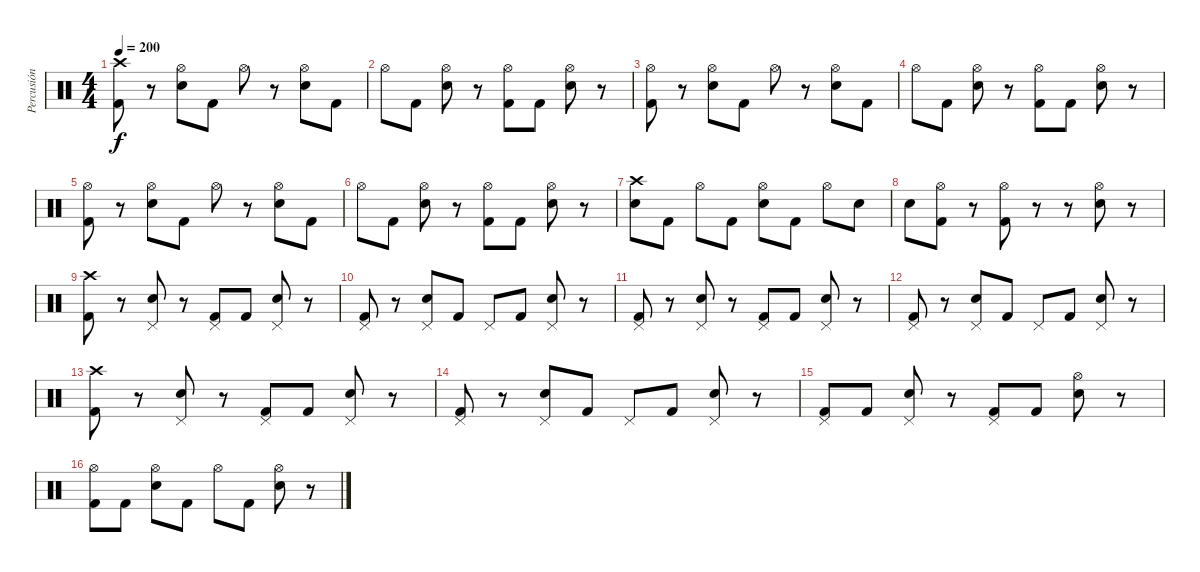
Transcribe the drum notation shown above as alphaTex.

\track ("Percusión" "Percusión") {instrument percussion}
\staff {score}
\articulation defaults
\ts (4 4)
\tempo 200
\clef neutral
\ks c
("Kick (hit) 2" "Crash high (hit)").8{dy f} r.8 ("Snare (hit) 2" "Hi-Hat (open)").8 "Kick (hit) 2".8 "Hi-Hat (open)".8 r.8 ("Snare (hit) 2" "Hi-Hat (open)").8 "Kick (hit) 2".8 |
"Hi-Hat (open)".8 "Kick (hit) 2".8 ("Snare (hit) 2" "Hi-Hat (open)").8 r.8 ("Kick (hit) 2" "Hi-Hat (open)").8 "Kick (hit) 2".8 ("Snare (hit) 2" "Hi-Hat (open)").8 r.8 |
("Kick (hit) 2" "Hi-Hat (open)").8 r.8 ("Snare (hit) 2" "Hi-Hat (open)").8 "Kick (hit) 2".8 "Hi-Hat (open)".8 r.8 ("Snare (hit) 2" "Hi-Hat (open)").8 "Kick (hit) 2".8 |
"Hi-Hat (open)".8 "Kick (hit) 2".8 ("Snare (hit) 2" "Hi-Hat (open)").8 r.8 ("Kick (hit) 2" "Hi-Hat (open)").8 "Kick (hit) 2".8 ("Snare (hit) 2" "Hi-Hat (open)").8 r.8 |
("Kick (hit) 2" "Hi-Hat (open)").8 r.8 ("Snare (hit) 2" "Hi-Hat (open)").8 "Kick (hit) 2".8 "Hi-Hat (open)".8 r.8 ("Snare (hit) 2" "Hi-Hat (open)").8 "Kick (hit) 2".8 |
"Hi-Hat (open)".8 "Kick (hit) 2".8 ("Snare (hit) 2" "Hi-Hat (open)").8 r.8 ("Kick (hit) 2" "Hi-Hat (open)").8 "Kick (hit) 2".8 ("Snare (hit) 2" "Hi-Hat (open)").8 r.8 |
("Snare (hit) 2" "Crash high (hit)").8 "Kick (hit) 2".8 "Hi-Hat (open)".8 "Kick (hit) 2".8 ("Snare (hit) 2" "Hi-Hat (open)").8 "Kick (hit) 2".8 "Hi-Hat (open)".8 "Snare (hit) 2".8 |
"Snare (hit) 2".8 ("Kick (hit) 2" "Hi-Hat (open)").8 r.8 ("Kick (hit) 2" "Hi-Hat (open)").8 r.8 r.8 ("Snare (hit) 2" "Hi-Hat (open)").8 r.8 |
("Kick (hit) 2" "Crash high (hit)").8 r.8 ("Snare (hit) 2" "Pedal Hi-Hat (hit)").8 r.8 ("Kick (hit) 2" "Pedal Hi-Hat (hit)").8 "Kick (hit) 2".8 ("Snare (hit) 2" "Pedal Hi-Hat (hit)").8 r.8 |
("Kick (hit) 2" "Pedal Hi-Hat (hit)").8 r.8 ("Snare (hit) 2" "Pedal Hi-Hat (hit)").8 "Kick (hit) 2".8 "Pedal Hi-Hat (hit)".8 "Kick (hit) 2".8 ("Snare (hit) 2" "Pedal Hi-Hat (hit)").8 r.8 |
("Kick (hit) 2" "Pedal Hi-Hat (hit)").8 r.8 ("Snare (hit) 2" "Pedal Hi-Hat (hit)").8 r.8 ("Kick (hit) 2" "Pedal Hi-Hat (hit)").8 "Kick (hit) 2".8 ("Snare (hit) 2" "Pedal Hi-Hat (hit)").8 r.8 |
("Kick (hit) 2" "Pedal Hi-Hat (hit)").8 r.8 ("Snare (hit) 2" "Pedal Hi-Hat (hit)").8 "Kick (hit) 2".8 "Pedal Hi-Hat (hit)".8 "Kick (hit) 2".8 ("Snare (hit) 2" "Pedal Hi-Hat (hit)").8 r.8 |
("Kick (hit) 2" "Crash high (hit)").8 r.8 ("Snare (hit) 2" "Pedal Hi-Hat (hit)").8 r.8 ("Kick (hit) 2" "Pedal Hi-Hat (hit)").8 "Kick (hit) 2".8 ("Snare (hit) 2" "Pedal Hi-Hat (hit)").8 r.8 |
("Kick (hit) 2" "Pedal Hi-Hat (hit)").8 r.8 ("Snare (hit) 2" "Pedal Hi-Hat (hit)").8 "Kick (hit) 2".8 "Pedal Hi-Hat (hit)".8 "Kick (hit) 2".8 ("Snare (hit) 2" "Pedal Hi-Hat (hit)").8 r.8 |
("Kick (hit) 2" "Pedal Hi-Hat (hit)").8 "Kick (hit) 2".8 ("Snare (hit) 2" "Pedal Hi-Hat (hit)").8 r.8 ("Kick (hit) 2" "Pedal Hi-Hat (hit)").8 "Kick (hit) 2".8 ("Snare (hit) 2" "Hi-Hat (open)").8 r.8 |
("Kick (hit) 2" "Hi-Hat (open)").8 "Kick (hit) 2".8 ("Snare (hit) 2" "Hi-Hat (open)").8 "Kick (hit) 2".8 "Hi-Hat (open)".8 "Kick (hit) 2".8 ("Snare (hit) 2" "Hi-Hat (open)").8 r.8
